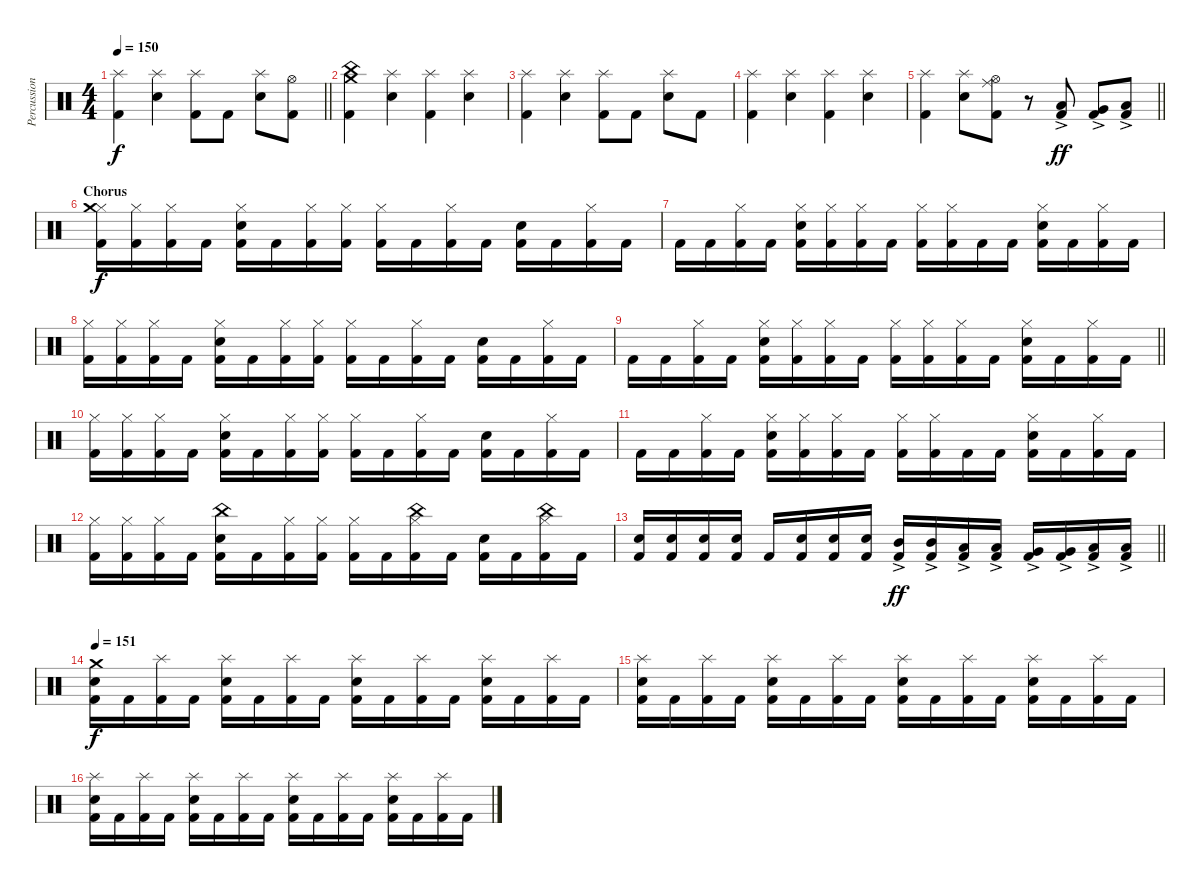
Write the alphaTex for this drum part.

\track ("Percussion" "Percussion") {instrument percussion}
\staff {score}
\articulation defaults
\ts (4 4)
\tempo 150
\clef neutral
\barLineRight lightlight
\ks c
("Kick (hit) 2" "Splash (hit)").4{dy f} ("Snare (hit) 2" "Splash (hit)").4 ("Kick (hit) 2" "Splash (hit)").8 "Kick (hit) 2".8 ("Snare (hit) 2" "Splash (hit)").8 ("Kick (hit) 2" "Hi-Hat (open)").8 |
\section ("" "")
("Kick (hit) 2" "China (hit)" "Crash medium (hit)").4 ("Snare (hit) 2" "Splash (hit)").4 ("Kick (hit) 2" "Splash (hit)").4 ("Snare (hit) 2" "Splash (hit)").4 |
("Kick (hit) 2" "Splash (hit)").4 ("Snare (hit) 2" "Splash (hit)").4 ("Kick (hit) 2" "Splash (hit)").8 "Kick (hit) 2".8 ("Snare (hit) 2" "Splash (hit)").8 "Kick (hit) 2".8 |
("Kick (hit) 2" "Splash (hit)").4 ("Snare (hit) 2" "Splash (hit)").4 ("Kick (hit) 2" "Splash (hit)").4 ("Snare (hit) 2" "Splash (hit)").4 |
\barLineRight lightlight
("Kick (hit) 2" "Splash (hit)").4 ("Snare (hit) 2" "Splash (hit)").8 ("Kick (hit) 2" "Hi-Hat (open)" "Ride (middle)").8 r.8 ("Kick (hit) 2" "Low Tom (hit)"{ac}).8{dy ff} ("Kick (hit) 2" "Very Low Tom (hit)"{ac}).8 ("Kick (hit) 2" "Low Floor Tom (hit)"{ac}).8 |
\section ("" "Chorus")
("Kick (hit) 2" "Hi-Hat (closed)" "Crash medium (hit)").16{dy f} ("Kick (hit) 2" "Hi-Hat (closed)").16 ("Kick (hit) 2" "Hi-Hat (closed)").16 "Kick (hit) 2".16 ("Kick (hit) 2" "Snare (hit) 2" "Hi-Hat (closed)").16 "Kick (hit) 2".16 ("Kick (hit) 2" "Hi-Hat (closed)").16 ("Kick (hit) 2" "Hi-Hat (closed)").16 ("Kick (hit) 2" "Hi-Hat (closed)").16 "Kick (hit) 2".16 ("Kick (hit) 2" "Hi-Hat (closed)").16 "Kick (hit) 2".16 ("Kick (hit) 2" "Snare (hit) 2").16 "Kick (hit) 2".16 ("Kick (hit) 2" "Hi-Hat (closed)").16 "Kick (hit) 2".16 |
"Kick (hit) 2".16 "Kick (hit) 2".16 ("Kick (hit) 2" "Hi-Hat (closed)").16 "Kick (hit) 2".16 ("Kick (hit) 2" "Snare (hit) 2" "Hi-Hat (closed)").16 ("Kick (hit) 2" "Hi-Hat (closed)").16 ("Kick (hit) 2" "Hi-Hat (closed)").16 "Kick (hit) 2".16 ("Kick (hit) 2" "Hi-Hat (closed)").16 ("Kick (hit) 2" "Hi-Hat (closed)").16 "Kick (hit) 2".16 "Kick (hit) 2".16 ("Kick (hit) 2" "Snare (hit) 2" "Hi-Hat (closed)").16 "Kick (hit) 2".16 ("Kick (hit) 2" "Hi-Hat (closed)").16 "Kick (hit) 2".16 |
("Kick (hit) 2" "Hi-Hat (closed)").16 ("Kick (hit) 2" "Hi-Hat (closed)").16 ("Kick (hit) 2" "Hi-Hat (closed)").16 "Kick (hit) 2".16 ("Kick (hit) 2" "Snare (hit) 2" "Hi-Hat (closed)").16 "Kick (hit) 2".16 ("Kick (hit) 2" "Hi-Hat (closed)").16 ("Kick (hit) 2" "Hi-Hat (closed)").16 ("Kick (hit) 2" "Hi-Hat (closed)").16 "Kick (hit) 2".16 ("Kick (hit) 2" "Hi-Hat (closed)").16 "Kick (hit) 2".16 ("Kick (hit) 2" "Snare (hit) 2").16 "Kick (hit) 2".16 ("Kick (hit) 2" "Hi-Hat (closed)").16 "Kick (hit) 2".16 |
\barLineRight lightlight "Kick (hit) 2".16 "Kick (hit) 2".16
("Kick (hit) 2" "Hi-Hat (closed)").16 "Kick (hit) 2".16 ("Kick (hit) 2" "Snare (hit) 2" "Hi-Hat (closed)").16 ("Kick (hit) 2" "Hi-Hat (closed)").16 ("Kick (hit) 2" "Hi-Hat (closed)").16 "Kick (hit) 2".16 ("Kick (hit) 2" "Hi-Hat (closed)").16 ("Kick (hit) 2" "Hi-Hat (closed)").16 ("Kick (hit) 2" "Hi-Hat (closed)").16 "Kick (hit) 2".16 ("Kick (hit) 2" "Snare (hit) 2" "Hi-Hat (closed)").16 "Kick (hit) 2".16 ("Kick (hit) 2" "Hi-Hat (closed)").16 "Kick (hit) 2".16 |
\section ("" "")
("Kick (hit) 2" "Hi-Hat (closed)").16 ("Kick (hit) 2" "Hi-Hat (closed)").16 ("Kick (hit) 2" "Hi-Hat (closed)").16 "Kick (hit) 2".16 ("Kick (hit) 2" "Snare (hit) 2" "Hi-Hat (closed)").16 "Kick (hit) 2".16 ("Kick (hit) 2" "Hi-Hat (closed)").16 ("Kick (hit) 2" "Hi-Hat (closed)").16 ("Kick (hit) 2" "Hi-Hat (closed)").16 "Kick (hit) 2".16 ("Kick (hit) 2" "Hi-Hat (closed)").16 "Kick (hit) 2".16 ("Kick (hit) 2" "Snare (hit) 2").16 "Kick (hit) 2".16 ("Kick (hit) 2" "Hi-Hat (closed)").16 "Kick (hit) 2".16 |
"Kick (hit) 2".16 "Kick (hit) 2".16 ("Kick (hit) 2" "Hi-Hat (closed)").16 "Kick (hit) 2".16 ("Kick (hit) 2" "Snare (hit) 2" "Hi-Hat (closed)").16 ("Kick (hit) 2" "Hi-Hat (closed)").16 ("Kick (hit) 2" "Hi-Hat (closed)").16 "Kick (hit) 2".16 ("Kick (hit) 2" "Hi-Hat (closed)").16 ("Kick (hit) 2" "Hi-Hat (closed)").16 "Kick (hit) 2".16 "Kick (hit) 2".16 ("Kick (hit) 2" "Snare (hit) 2" "Hi-Hat (closed)").16 "Kick (hit) 2".16 ("Kick (hit) 2" "Hi-Hat (closed)").16 "Kick (hit) 2".16 |
("Kick (hit) 2" "Hi-Hat (closed)").16 ("Kick (hit) 2" "Hi-Hat (closed)").16 ("Kick (hit) 2" "Hi-Hat (closed)").16 "Kick (hit) 2".16 ("Kick (hit) 2" "Snare (hit) 2" "China (hit)").16 "Kick (hit) 2".16 ("Kick (hit) 2" "Hi-Hat (closed)").16 ("Kick (hit) 2" "Hi-Hat (closed)").16 ("Kick (hit) 2" "Hi-Hat (closed)").16 "Kick (hit) 2".16 ("Kick (hit) 2" "Hi-Hat (closed)" "China (hit)").16 "Kick (hit) 2".16 ("Kick (hit) 2" "Snare (hit) 2").16 "Kick (hit) 2".16 ("Kick (hit) 2" "Hi-Hat (closed)" "China (hit)").16 "Kick (hit) 2".16 |
\barLineRight lightlight
("Kick (hit) 2" "Snare (hit) 2").16 ("Kick (hit) 2" "Snare (hit) 2").16 ("Kick (hit) 2" "Snare (hit) 2").16 ("Kick (hit) 2" "Snare (hit) 2").16 "Kick (hit) 2".16 ("Kick (hit) 2" "Snare (hit) 2").16 ("Kick (hit) 2" "Snare (hit) 2").16 ("Kick (hit) 2" "Snare (hit) 2").16 ("Kick (hit) 2" "Mid Tom (hit)"{ac}).16{dy ff} ("Kick (hit) 2" "Mid Tom (hit)"{ac}).16 ("Kick (hit) 2" "Low Tom (hit)"{ac}).16 ("Kick (hit) 2" "Low Tom (hit)"{ac}).16 ("Kick (hit) 2" "Very Low Tom (hit)"{ac}).16 ("Kick (hit) 2" "Very Low Tom (hit)"{ac}).16 ("Kick (hit) 2" "Low Floor Tom (hit)"{ac}).16 ("Kick (hit) 2" "Low Floor Tom (hit)"{ac}).16 |
\section ("" "")
\tempo 151
("Kick (hit) 2" "Snare (hit) 2" "Crash medium (hit)").16{dy f} "Kick (hit) 2".16 ("Kick (hit) 2" "Splash (hit)").16 "Kick (hit) 2".16 ("Kick (hit) 2" "Snare (hit) 2" "Splash (hit)").16 "Kick (hit) 2".16 ("Kick (hit) 2" "Splash (hit)").16 "Kick (hit) 2".16 ("Kick (hit) 2" "Snare (hit) 2" "Splash (hit)").16 "Kick (hit) 2".16 ("Kick (hit) 2" "Splash (hit)").16 "Kick (hit) 2".16 ("Kick (hit) 2" "Snare (hit) 2" "Splash (hit)").16 "Kick (hit) 2".16 ("Kick (hit) 2" "Splash (hit)").16 "Kick (hit) 2".16 |
("Kick (hit) 2" "Snare (hit) 2" "Splash (hit)").16 "Kick (hit) 2".16 ("Kick (hit) 2" "Splash (hit)").16 "Kick (hit) 2".16 ("Kick (hit) 2" "Snare (hit) 2" "Splash (hit)").16 "Kick (hit) 2".16 ("Kick (hit) 2" "Splash (hit)").16 "Kick (hit) 2".16 ("Kick (hit) 2" "Snare (hit) 2" "Splash (hit)").16 "Kick (hit) 2".16 ("Kick (hit) 2" "Splash (hit)").16 "Kick (hit) 2".16 ("Kick (hit) 2" "Snare (hit) 2" "Splash (hit)").16 "Kick (hit) 2".16 ("Kick (hit) 2" "Splash (hit)").16 "Kick (hit) 2".16 |
("Kick (hit) 2" "Snare (hit) 2" "Splash (hit)").16 "Kick (hit) 2".16 ("Kick (hit) 2" "Splash (hit)").16 "Kick (hit) 2".16 ("Kick (hit) 2" "Snare (hit) 2" "Splash (hit)").16 "Kick (hit) 2".16 ("Kick (hit) 2" "Splash (hit)").16 "Kick (hit) 2".16 ("Kick (hit) 2" "Snare (hit) 2" "Splash (hit)").16 "Kick (hit) 2".16 ("Kick (hit) 2" "Splash (hit)").16 "Kick (hit) 2".16 ("Kick (hit) 2" "Snare (hit) 2" "Splash (hit)").16 "Kick (hit) 2".16 ("Kick (hit) 2" "Splash (hit)").16 "Kick (hit) 2".16
